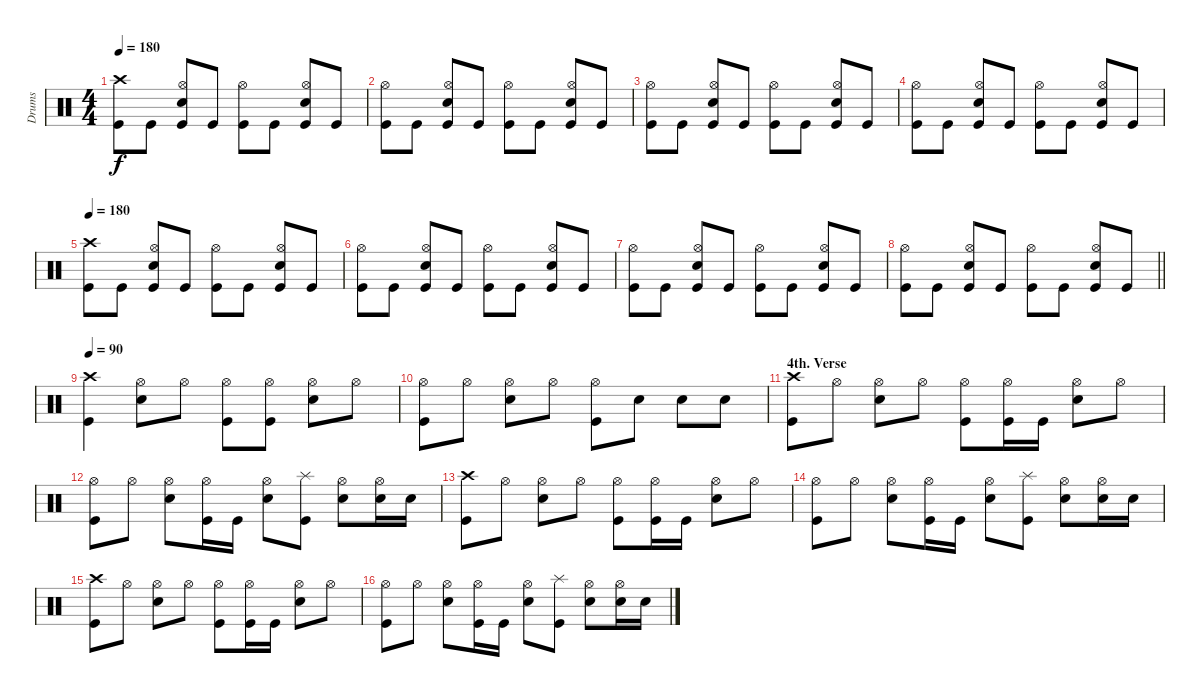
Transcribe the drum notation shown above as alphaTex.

\track ("Drums" "Drums") {instrument percussion}
\staff {score}
\articulation defaults
\ts (4 4)
\tempo 180
\clef neutral
\ks c
("Crash high (hit)" "Kick (hit)").8{dy f} "Kick (hit)".8 ("Hi-Hat (open)" "Electric Snare (hit)" "Kick (hit)").8 "Kick (hit)".8 ("Hi-Hat (open)" "Kick (hit)").8 "Kick (hit)".8 ("Hi-Hat (open)" "Electric Snare (hit)" "Kick (hit)").8 "Kick (hit)".8 |
("Hi-Hat (open)" "Kick (hit)").8 "Kick (hit)".8 ("Hi-Hat (open)" "Electric Snare (hit)" "Kick (hit)").8 "Kick (hit)".8 ("Hi-Hat (open)" "Kick (hit)").8 "Kick (hit)".8 ("Hi-Hat (open)" "Electric Snare (hit)" "Kick (hit)").8 "Kick (hit)".8 |
("Hi-Hat (open)" "Kick (hit)").8 "Kick (hit)".8 ("Hi-Hat (open)" "Electric Snare (hit)" "Kick (hit)").8 "Kick (hit)".8 ("Hi-Hat (open)" "Kick (hit)").8 "Kick (hit)".8 ("Hi-Hat (open)" "Electric Snare (hit)" "Kick (hit)").8 "Kick (hit)".8 |
("Hi-Hat (open)" "Kick (hit)").8 "Kick (hit)".8 ("Hi-Hat (open)" "Electric Snare (hit)" "Kick (hit)").8 "Kick (hit)".8 ("Hi-Hat (open)" "Kick (hit)").8 "Kick (hit)".8 ("Hi-Hat (open)" "Electric Snare (hit)" "Kick (hit)").8 "Kick (hit)".8 |
\tempo 180
("Crash high (hit)" "Kick (hit)").8 "Kick (hit)".8 ("Hi-Hat (open)" "Electric Snare (hit)" "Kick (hit)").8 "Kick (hit)".8 ("Hi-Hat (open)" "Kick (hit)").8 "Kick (hit)".8 ("Hi-Hat (open)" "Electric Snare (hit)" "Kick (hit)").8 "Kick (hit)".8 |
("Hi-Hat (open)" "Kick (hit)").8 "Kick (hit)".8 ("Hi-Hat (open)" "Electric Snare (hit)" "Kick (hit)").8 "Kick (hit)".8 ("Hi-Hat (open)" "Kick (hit)").8 "Kick (hit)".8 ("Hi-Hat (open)" "Electric Snare (hit)" "Kick (hit)").8 "Kick (hit)".8 |
("Hi-Hat (open)" "Kick (hit)").8 "Kick (hit)".8 ("Hi-Hat (open)" "Electric Snare (hit)" "Kick (hit)").8 "Kick (hit)".8 ("Hi-Hat (open)" "Kick (hit)").8 "Kick (hit)".8 ("Hi-Hat (open)" "Electric Snare (hit)" "Kick (hit)").8 "Kick (hit)".8 |
\barLineRight lightlight
("Hi-Hat (open)" "Kick (hit)").8 "Kick (hit)".8 ("Hi-Hat (open)" "Electric Snare (hit)" "Kick (hit)").8 "Kick (hit)".8 ("Hi-Hat (open)" "Kick (hit)").8 "Kick (hit)".8 ("Hi-Hat (open)" "Electric Snare (hit)" "Kick (hit)").8 "Kick (hit)".8 |
\tempo 90
("Crash high (hit)" "Kick (hit)").4 ("Hi-Hat (open)" "Electric Snare (hit)").8 "Hi-Hat (open)".8 ("Hi-Hat (open)" "Kick (hit)").8 ("Hi-Hat (open)" "Kick (hit)").8 ("Hi-Hat (open)" "Electric Snare (hit)").8 "Hi-Hat (open)".8 |
("Hi-Hat (open)" "Kick (hit)").8 "Hi-Hat (open)".8 ("Hi-Hat (open)" "Electric Snare (hit)").8 "Hi-Hat (open)".8 ("Hi-Hat (open)" "Kick (hit)").8 "Electric Snare (hit)".8 "Electric Snare (hit)".8 "Electric Snare (hit)".8 |
\section ("" "4th. Verse")
("Crash high (hit)" "Kick (hit)").8 "Hi-Hat (open)".8 ("Hi-Hat (open)" "Electric Snare (hit)").8 "Hi-Hat (open)".8 ("Hi-Hat (open)" "Kick (hit)").8 ("Hi-Hat (open)" "Kick (hit)").16 "Kick (hit)".16 ("Hi-Hat (open)" "Electric Snare (hit)").8 "Hi-Hat (open)".8 |
("Hi-Hat (open)" "Kick (hit)").8 "Hi-Hat (open)".8 ("Hi-Hat (open)" "Electric Snare (hit)").8 ("Hi-Hat (open)" "Kick (hit)").16 "Kick (hit)".16 ("Hi-Hat (open)" "Electric Snare (hit)").8 ("Splash (hit)" "Kick (hit)").8 ("Hi-Hat (open)" "Electric Snare (hit)").8 ("Hi-Hat (open)" "Electric Snare (hit)").16 "Electric Snare (hit)".16 |
("Crash high (hit)" "Kick (hit)").8 "Hi-Hat (open)".8 ("Hi-Hat (open)" "Electric Snare (hit)").8 "Hi-Hat (open)".8 ("Hi-Hat (open)" "Kick (hit)").8 ("Hi-Hat (open)" "Kick (hit)").16 "Kick (hit)".16 ("Hi-Hat (open)" "Electric Snare (hit)").8 "Hi-Hat (open)".8 |
("Hi-Hat (open)" "Kick (hit)").8 "Hi-Hat (open)".8 ("Hi-Hat (open)" "Electric Snare (hit)").8 ("Hi-Hat (open)" "Kick (hit)").16 "Kick (hit)".16 ("Hi-Hat (open)" "Electric Snare (hit)").8 ("Splash (hit)" "Kick (hit)").8 ("Hi-Hat (open)" "Electric Snare (hit)").8 ("Hi-Hat (open)" "Electric Snare (hit)").16 "Electric Snare (hit)".16 |
("Crash high (hit)" "Kick (hit)").8 "Hi-Hat (open)".8 ("Hi-Hat (open)" "Electric Snare (hit)").8 "Hi-Hat (open)".8 ("Hi-Hat (open)" "Kick (hit)").8 ("Hi-Hat (open)" "Kick (hit)").16 "Kick (hit)".16 ("Hi-Hat (open)" "Electric Snare (hit)").8 "Hi-Hat (open)".8 |
("Hi-Hat (open)" "Kick (hit)").8 "Hi-Hat (open)".8 ("Hi-Hat (open)" "Electric Snare (hit)").8 ("Hi-Hat (open)" "Kick (hit)").16 "Kick (hit)".16 ("Hi-Hat (open)" "Electric Snare (hit)").8 ("Splash (hit)" "Kick (hit)").8 ("Hi-Hat (open)" "Electric Snare (hit)").8 ("Hi-Hat (open)" "Electric Snare (hit)").16 "Electric Snare (hit)".16
